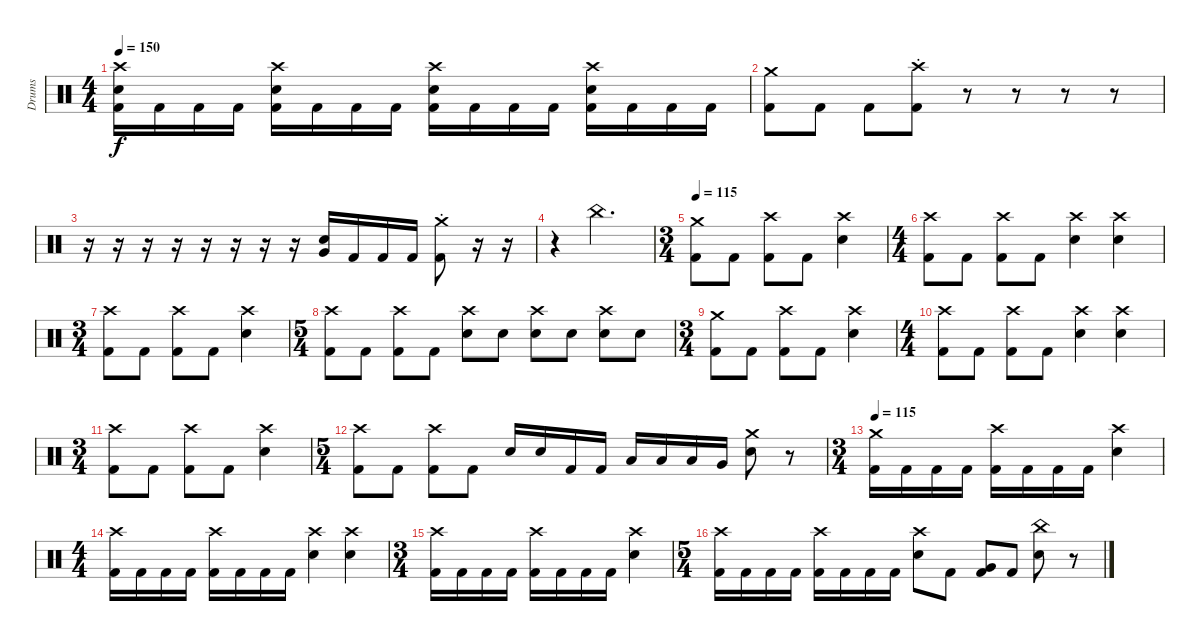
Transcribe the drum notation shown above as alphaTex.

\track ("Drums" "Drums") {instrument percussion}
\staff {score}
\articulation defaults
\ts (4 4)
\tempo 150
\clef neutral
\ks c
("Crash high (hit)" "Snare (hit) 2" "Kick (hit) 2").16{dy f} "Kick (hit) 2".16 "Kick (hit) 2".16 "Kick (hit) 2".16 ("Crash high (hit)" "Snare (hit) 2" "Kick (hit) 2").16 "Kick (hit) 2".16 "Kick (hit) 2".16 "Kick (hit) 2".16 ("Crash high (hit)" "Snare (hit) 2" "Kick (hit) 2").16 "Kick (hit) 2".16 "Kick (hit) 2".16 "Kick (hit) 2".16 ("Crash high (hit)" "Snare (hit) 2" "Kick (hit) 2").16 "Kick (hit) 2".16 "Kick (hit) 2".16 "Kick (hit) 2".16 |
("Crash medium (hit)" "Kick (hit) 2").8 "Kick (hit) 2".8 "Kick (hit) 2".8 ("Crash high (hit)"{st} "Kick (hit) 2").8 r.8 r.8 r.8 r.8 |
r.16 r.16 r.16 r.16 r.16 r.16 r.16 r.16 ("Very Low Tom (hit)" "Snare (hit) 2").16 "Kick (hit) 2".16 "Kick (hit) 2".16 "Kick (hit) 2".16 ("Crash medium (hit)"{st} "Kick (hit) 2").8 r.16 r.16 |
r.4 "China (hit)".2{d} |
\ts (3 4)
\tempo 115
("Crash medium (hit)" "Kick (hit) 2").8 "Kick (hit) 2".8 ("Crash high (hit)" "Kick (hit) 2").8 "Kick (hit) 2".8 ("Crash high (hit)" "Snare (hit) 2").4 |
\ts (4 4)
("Crash high (hit)" "Kick (hit) 2").8 "Kick (hit) 2".8 ("Crash high (hit)" "Kick (hit) 2").8 "Kick (hit) 2".8 ("Crash high (hit)" "Snare (hit) 2").4 ("Crash high (hit)" "Snare (hit) 2").4 |
\ts (3 4)
("Crash high (hit)" "Kick (hit) 2").8 "Kick (hit) 2".8 ("Crash high (hit)" "Kick (hit) 2").8 "Kick (hit) 2".8 ("Crash high (hit)" "Snare (hit) 2").4 |
\ts (5 4)
("Crash high (hit)" "Kick (hit) 2").8 "Kick (hit) 2".8 ("Crash high (hit)" "Kick (hit) 2").8 "Kick (hit) 2".8 ("Crash high (hit)" "Snare (hit) 2").8 "Snare (hit) 2".8 ("Crash high (hit)" "Snare (hit) 2").8 "Snare (hit) 2".8 ("Crash high (hit)" "Snare (hit) 2").8 "Snare (hit) 2".8 |
\ts (3 4)
("Crash medium (hit)" "Kick (hit) 2").8 "Kick (hit) 2".8 ("Crash high (hit)" "Kick (hit) 2").8 "Kick (hit) 2".8 ("Crash high (hit)" "Snare (hit) 2").4 |
\ts (4 4)
("Crash high (hit)" "Kick (hit) 2").8 "Kick (hit) 2".8 ("Crash high (hit)" "Kick (hit) 2").8 "Kick (hit) 2".8 ("Crash high (hit)" "Snare (hit) 2").4 ("Crash high (hit)" "Snare (hit) 2").4 |
\ts (3 4)
("Crash high (hit)" "Kick (hit) 2").8 "Kick (hit) 2".8 ("Crash high (hit)" "Kick (hit) 2").8 "Kick (hit) 2".8 ("Crash high (hit)" "Snare (hit) 2").4 |
\ts (5 4)
("Crash high (hit)" "Kick (hit) 2").8 "Kick (hit) 2".8 ("Crash high (hit)" "Kick (hit) 2").8 "Kick (hit) 2".8 "Snare (hit) 2".16 "Snare (hit) 2".16 "Kick (hit) 2".16 "Kick (hit) 2".16 "Low Tom (hit)".16 "Low Tom (hit)".16 "Low Tom (hit)".16 "Very Low Tom (hit)".16 ("Crash medium (hit)" "Snare (hit) 2").8 r.8 |
\ts (3 4)
\tempo 115
("Crash medium (hit)" "Kick (hit) 2").16 "Kick (hit) 2".16 "Kick (hit) 2".16 "Kick (hit) 2".16 ("Crash high (hit)" "Kick (hit) 2").16 "Kick (hit) 2".16 "Kick (hit) 2".16 "Kick (hit) 2".16 ("Crash high (hit)" "Snare (hit) 2").4 |
\ts (4 4)
("Crash high (hit)" "Kick (hit) 2").16 "Kick (hit) 2".16 "Kick (hit) 2".16 "Kick (hit) 2".16 ("Crash high (hit)" "Kick (hit) 2").16 "Kick (hit) 2".16 "Kick (hit) 2".16 "Kick (hit) 2".16 ("Crash high (hit)" "Snare (hit) 2").4 ("Crash high (hit)" "Snare (hit) 2").4 |
\ts (3 4)
("Crash high (hit)" "Kick (hit) 2").16 "Kick (hit) 2".16 "Kick (hit) 2".16 "Kick (hit) 2".16 ("Crash high (hit)" "Kick (hit) 2").16 "Kick (hit) 2".16 "Kick (hit) 2".16 "Kick (hit) 2".16 ("Crash high (hit)" "Snare (hit) 2").4 |
\ts (5 4)
("Crash high (hit)" "Kick (hit) 2").16 "Kick (hit) 2".16 "Kick (hit) 2".16 "Kick (hit) 2".16 ("Crash high (hit)" "Kick (hit) 2").16 "Kick (hit) 2".16 "Kick (hit) 2".16 "Kick (hit) 2".16 ("Crash high (hit)" "Snare (hit) 2").8 "Kick (hit) 2".8 ("Very Low Tom (hit)" "Kick (hit) 2").8 "Kick (hit) 2".8 ("China (hit)" "Snare (hit) 2").8 r.8
